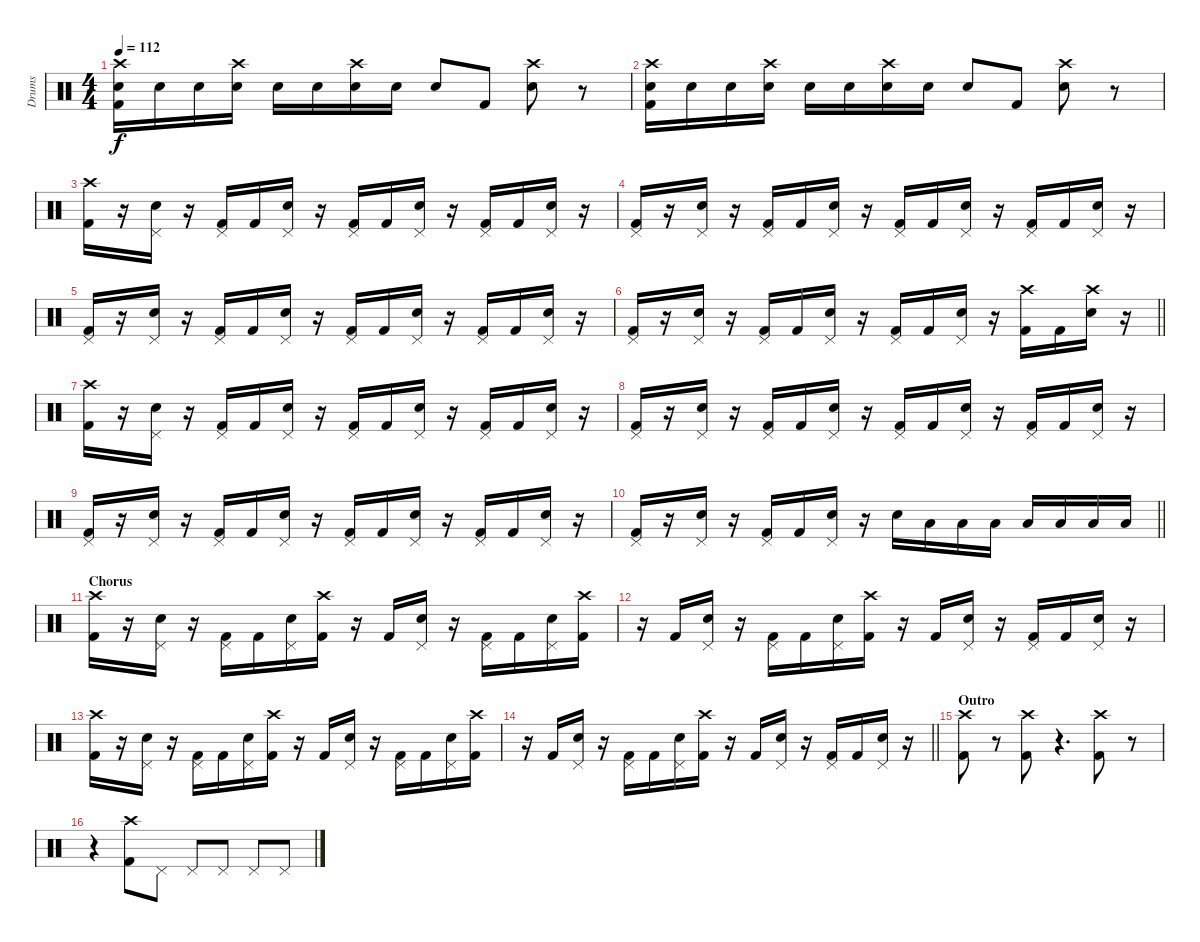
\track ("Drums" "Drums") {instrument percussion}
\staff {score}
\articulation defaults
\ts (4 4)
\tempo 112
\clef neutral
\ks c
("Crash high (hit)" "Snare (hit) 2" "Kick (hit) 2").16{dy f} "Snare (hit) 2".16 "Snare (hit) 2".16 ("Crash high (hit)" "Snare (hit) 2").16 "Snare (hit) 2".16 "Snare (hit) 2".16 ("Crash high (hit)" "Snare (hit) 2").16 "Snare (hit) 2".16 "Snare (hit) 2".8 "Kick (hit) 2".8 ("Crash high (hit)" "Snare (hit) 2").8 r.8 |
("Crash high (hit)" "Snare (hit) 2" "Kick (hit) 2").16 "Snare (hit) 2".16 "Snare (hit) 2".16 ("Crash high (hit)" "Snare (hit) 2").16 "Snare (hit) 2".16 "Snare (hit) 2".16 ("Crash high (hit)" "Snare (hit) 2").16 "Snare (hit) 2".16 "Snare (hit) 2".8 "Kick (hit) 2".8 ("Crash high (hit)" "Snare (hit) 2").8 r.8 |
("Crash high (hit)" "Kick (hit) 2").16 r.16 ("Pedal Hi-Hat (hit)" "Snare (hit) 2").16 r.16 ("Pedal Hi-Hat (hit)" "Kick (hit) 2").16 "Kick (hit) 2".16 ("Pedal Hi-Hat (hit)" "Snare (hit) 2").16 r.16 ("Pedal Hi-Hat (hit)" "Kick (hit) 2").16 "Kick (hit) 2".16 ("Pedal Hi-Hat (hit)" "Snare (hit) 2").16 r.16 ("Pedal Hi-Hat (hit)" "Kick (hit) 2").16 "Kick (hit) 2".16 ("Pedal Hi-Hat (hit)" "Snare (hit) 2").16 r.16 |
("Pedal Hi-Hat (hit)" "Kick (hit) 2").16 r.16 ("Pedal Hi-Hat (hit)" "Snare (hit) 2").16 r.16 ("Pedal Hi-Hat (hit)" "Kick (hit) 2").16 "Kick (hit) 2".16 ("Pedal Hi-Hat (hit)" "Snare (hit) 2").16 r.16 ("Pedal Hi-Hat (hit)" "Kick (hit) 2").16 "Kick (hit) 2".16 ("Pedal Hi-Hat (hit)" "Snare (hit) 2").16 r.16 ("Pedal Hi-Hat (hit)" "Kick (hit) 2").16 "Kick (hit) 2".16 ("Pedal Hi-Hat (hit)" "Snare (hit) 2").16 r.16 |
("Pedal Hi-Hat (hit)" "Kick (hit) 2").16 r.16 ("Pedal Hi-Hat (hit)" "Snare (hit) 2").16 r.16 ("Pedal Hi-Hat (hit)" "Kick (hit) 2").16 "Kick (hit) 2".16 ("Pedal Hi-Hat (hit)" "Snare (hit) 2").16 r.16 ("Pedal Hi-Hat (hit)" "Kick (hit) 2").16 "Kick (hit) 2".16 ("Pedal Hi-Hat (hit)" "Snare (hit) 2").16 r.16 ("Pedal Hi-Hat (hit)" "Kick (hit) 2").16 "Kick (hit) 2".16 ("Pedal Hi-Hat (hit)" "Snare (hit) 2").16 r.16 |
\barLineRight lightlight
("Pedal Hi-Hat (hit)" "Kick (hit) 2").16 r.16 ("Pedal Hi-Hat (hit)" "Snare (hit) 2").16 r.16 ("Pedal Hi-Hat (hit)" "Kick (hit) 2").16 "Kick (hit) 2".16 ("Pedal Hi-Hat (hit)" "Snare (hit) 2").16 r.16 ("Pedal Hi-Hat (hit)" "Kick (hit) 2").16 "Kick (hit) 2".16 ("Pedal Hi-Hat (hit)" "Snare (hit) 2").16 r.16 ("Crash high (hit)" "Kick (hit) 2").16 "Kick (hit) 2".16 ("Crash high (hit)" "Snare (hit) 2").16 r.16 |
("Crash high (hit)" "Kick (hit) 2").16 r.16 ("Pedal Hi-Hat (hit)" "Snare (hit) 2").16 r.16 ("Pedal Hi-Hat (hit)" "Kick (hit) 2").16 "Kick (hit) 2".16 ("Pedal Hi-Hat (hit)" "Snare (hit) 2").16 r.16 ("Pedal Hi-Hat (hit)" "Kick (hit) 2").16 "Kick (hit) 2".16 ("Pedal Hi-Hat (hit)" "Snare (hit) 2").16 r.16 ("Pedal Hi-Hat (hit)" "Kick (hit) 2").16 "Kick (hit) 2".16 ("Pedal Hi-Hat (hit)" "Snare (hit) 2").16 r.16 |
("Pedal Hi-Hat (hit)" "Kick (hit) 2").16 r.16 ("Pedal Hi-Hat (hit)" "Snare (hit) 2").16 r.16 ("Pedal Hi-Hat (hit)" "Kick (hit) 2").16 "Kick (hit) 2".16 ("Pedal Hi-Hat (hit)" "Snare (hit) 2").16 r.16 ("Pedal Hi-Hat (hit)" "Kick (hit) 2").16 "Kick (hit) 2".16 ("Pedal Hi-Hat (hit)" "Snare (hit) 2").16 r.16 ("Pedal Hi-Hat (hit)" "Kick (hit) 2").16 "Kick (hit) 2".16 ("Pedal Hi-Hat (hit)" "Snare (hit) 2").16 r.16 |
("Pedal Hi-Hat (hit)" "Kick (hit) 2").16 r.16 ("Pedal Hi-Hat (hit)" "Snare (hit) 2").16 r.16 ("Pedal Hi-Hat (hit)" "Kick (hit) 2").16 "Kick (hit) 2".16 ("Pedal Hi-Hat (hit)" "Snare (hit) 2").16 r.16 ("Pedal Hi-Hat (hit)" "Kick (hit) 2").16 "Kick (hit) 2".16 ("Pedal Hi-Hat (hit)" "Snare (hit) 2").16 r.16 ("Pedal Hi-Hat (hit)" "Kick (hit) 2").16 "Kick (hit) 2".16 ("Pedal Hi-Hat (hit)" "Snare (hit) 2").16 r.16 |
\barLineRight lightlight
("Pedal Hi-Hat (hit)" "Kick (hit) 2").16 r.16 ("Pedal Hi-Hat (hit)" "Snare (hit) 2").16 r.16 ("Pedal Hi-Hat (hit)" "Kick (hit) 2").16 "Kick (hit) 2".16 ("Pedal Hi-Hat (hit)" "Snare (hit) 2").16 r.16 "Snare (hit) 2".16 "Low Tom (hit)".16 "Low Tom (hit)".16 "Low Tom (hit)".16 "Low Tom (hit)".16 "Low Tom (hit)".16 "Low Tom (hit)".16 "Low Tom (hit)".16 |
\section ("" "Chorus")
("Crash high (hit)" "Kick (hit) 2").16 r.16 ("Pedal Hi-Hat (hit)" "Snare (hit) 2").16 r.16 ("Pedal Hi-Hat (hit)" "Kick (hit) 2").16 "Kick (hit) 2".16 ("Pedal Hi-Hat (hit)" "Snare (hit) 2").16 ("Crash high (hit)" "Kick (hit) 2").16 r.16 "Kick (hit) 2".16 ("Pedal Hi-Hat (hit)" "Snare (hit) 2").16 r.16 ("Pedal Hi-Hat (hit)" "Kick (hit) 2").16 "Kick (hit) 2".16 ("Pedal Hi-Hat (hit)" "Snare (hit) 2").16 ("Crash high (hit)" "Kick (hit) 2").16 |
r.16 "Kick (hit) 2".16 ("Pedal Hi-Hat (hit)" "Snare (hit) 2").16 r.16 ("Pedal Hi-Hat (hit)" "Kick (hit) 2").16 "Kick (hit) 2".16 ("Pedal Hi-Hat (hit)" "Snare (hit) 2").16 ("Crash high (hit)" "Kick (hit) 2").16 r.16 "Kick (hit) 2".16 ("Pedal Hi-Hat (hit)" "Snare (hit) 2").16 r.16 ("Pedal Hi-Hat (hit)" "Kick (hit) 2").16 "Kick (hit) 2".16 ("Pedal Hi-Hat (hit)" "Snare (hit) 2").16 r.16 |
("Crash high (hit)" "Kick (hit) 2").16 r.16 ("Pedal Hi-Hat (hit)" "Snare (hit) 2").16 r.16 ("Pedal Hi-Hat (hit)" "Kick (hit) 2").16 "Kick (hit) 2".16 ("Pedal Hi-Hat (hit)" "Snare (hit) 2").16 ("Crash high (hit)" "Kick (hit) 2").16 r.16 "Kick (hit) 2".16 ("Pedal Hi-Hat (hit)" "Snare (hit) 2").16 r.16 ("Pedal Hi-Hat (hit)" "Kick (hit) 2").16 "Kick (hit) 2".16 ("Pedal Hi-Hat (hit)" "Snare (hit) 2").16 ("Crash high (hit)" "Kick (hit) 2").16 |
\barLineRight lightlight
r.16 "Kick (hit) 2".16 ("Pedal Hi-Hat (hit)" "Snare (hit) 2").16 r.16 ("Pedal Hi-Hat (hit)" "Kick (hit) 2").16 "Kick (hit) 2".16 ("Pedal Hi-Hat (hit)" "Snare (hit) 2").16 ("Crash high (hit)" "Kick (hit) 2").16 r.16 "Kick (hit) 2".16 ("Pedal Hi-Hat (hit)" "Snare (hit) 2").16 r.16 ("Pedal Hi-Hat (hit)" "Kick (hit) 2").16 "Kick (hit) 2".16 ("Pedal Hi-Hat (hit)" "Snare (hit) 2").16 r.16 |
\section ("" "Outro")
("Crash high (hit)" "Kick (hit) 2").8 r.8 ("Crash high (hit)" "Kick (hit) 2").8 r.4{d} ("Crash high (hit)" "Kick (hit) 2").8 r.8 |
r.4 ("Crash high (hit)" "Kick (hit) 2").8 "Pedal Hi-Hat (hit)".8 "Pedal Hi-Hat (hit)".8 "Pedal Hi-Hat (hit)".8 "Pedal Hi-Hat (hit)".8 "Pedal Hi-Hat (hit)".8
